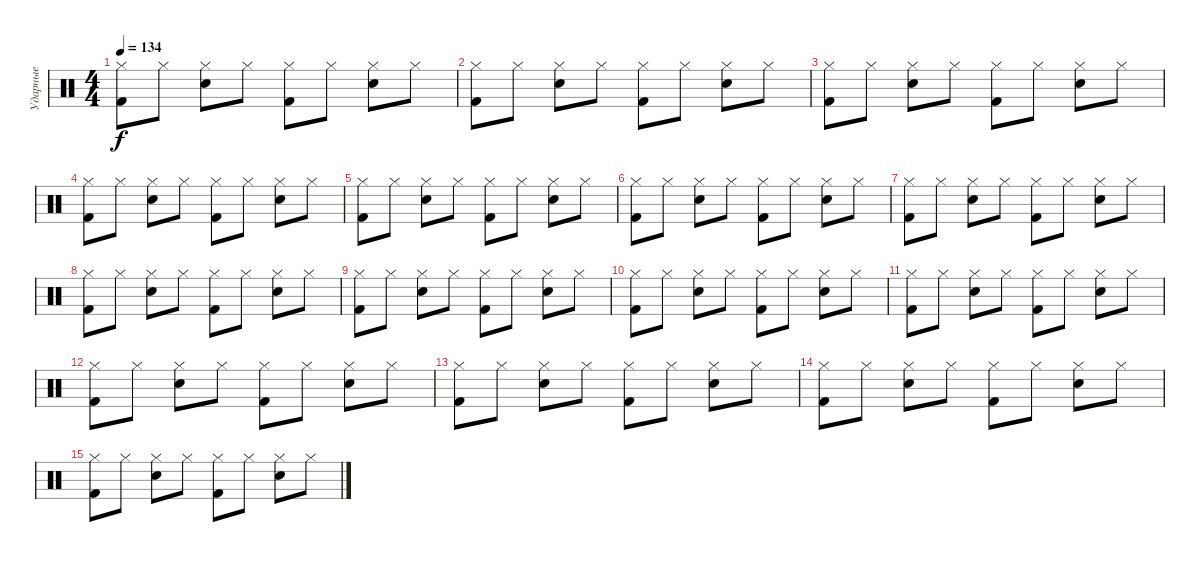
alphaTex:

\track ("Ударные" "Ударные") {instrument percussion}
\staff {score}
\articulation defaults
\ts (4 4)
\tempo 134
\clef neutral
\ks c
("Hi-Hat (closed)" "Kick (hit) 2").8{dy f} "Hi-Hat (closed)".8 ("Hi-Hat (closed)" "Snare (hit) 2").8 "Hi-Hat (closed)".8 ("Hi-Hat (closed)" "Kick (hit) 2").8 "Hi-Hat (closed)".8 ("Hi-Hat (closed)" "Snare (hit) 2").8 "Hi-Hat (closed)".8 |
("Hi-Hat (closed)" "Kick (hit) 2").8 "Hi-Hat (closed)".8 ("Hi-Hat (closed)" "Snare (hit) 2").8 "Hi-Hat (closed)".8 ("Hi-Hat (closed)" "Kick (hit) 2").8 "Hi-Hat (closed)".8 ("Hi-Hat (closed)" "Snare (hit) 2").8 "Hi-Hat (closed)".8 |
("Hi-Hat (closed)" "Kick (hit) 2").8 "Hi-Hat (closed)".8 ("Hi-Hat (closed)" "Snare (hit) 2").8 "Hi-Hat (closed)".8 ("Hi-Hat (closed)" "Kick (hit) 2").8 "Hi-Hat (closed)".8 ("Hi-Hat (closed)" "Snare (hit) 2").8 "Hi-Hat (closed)".8 |
("Hi-Hat (closed)" "Kick (hit) 2").8 "Hi-Hat (closed)".8 ("Hi-Hat (closed)" "Snare (hit) 2").8 "Hi-Hat (closed)".8 ("Hi-Hat (closed)" "Kick (hit) 2").8 "Hi-Hat (closed)".8 ("Hi-Hat (closed)" "Snare (hit) 2").8 "Hi-Hat (closed)".8 |
("Hi-Hat (closed)" "Kick (hit) 2").8 "Hi-Hat (closed)".8 ("Hi-Hat (closed)" "Snare (hit) 2").8 "Hi-Hat (closed)".8 ("Hi-Hat (closed)" "Kick (hit) 2").8 "Hi-Hat (closed)".8 ("Hi-Hat (closed)" "Snare (hit) 2").8 "Hi-Hat (closed)".8 |
("Hi-Hat (closed)" "Kick (hit) 2").8 "Hi-Hat (closed)".8 ("Hi-Hat (closed)" "Snare (hit) 2").8 "Hi-Hat (closed)".8 ("Hi-Hat (closed)" "Kick (hit) 2").8 "Hi-Hat (closed)".8 ("Hi-Hat (closed)" "Snare (hit) 2").8 "Hi-Hat (closed)".8 |
("Hi-Hat (closed)" "Kick (hit) 2").8 "Hi-Hat (closed)".8 ("Hi-Hat (closed)" "Snare (hit) 2").8 "Hi-Hat (closed)".8 ("Hi-Hat (closed)" "Kick (hit) 2").8 "Hi-Hat (closed)".8 ("Hi-Hat (closed)" "Snare (hit) 2").8 "Hi-Hat (closed)".8 |
("Hi-Hat (closed)" "Kick (hit) 2").8 "Hi-Hat (closed)".8 ("Hi-Hat (closed)" "Snare (hit) 2").8 "Hi-Hat (closed)".8 ("Hi-Hat (closed)" "Kick (hit) 2").8 "Hi-Hat (closed)".8 ("Hi-Hat (closed)" "Snare (hit) 2").8 "Hi-Hat (closed)".8 |
("Hi-Hat (closed)" "Kick (hit) 2").8 "Hi-Hat (closed)".8 ("Hi-Hat (closed)" "Snare (hit) 2").8 "Hi-Hat (closed)".8 ("Hi-Hat (closed)" "Kick (hit) 2").8 "Hi-Hat (closed)".8 ("Hi-Hat (closed)" "Snare (hit) 2").8 "Hi-Hat (closed)".8 |
("Hi-Hat (closed)" "Kick (hit) 2").8 "Hi-Hat (closed)".8 ("Hi-Hat (closed)" "Snare (hit) 2").8 "Hi-Hat (closed)".8 ("Hi-Hat (closed)" "Kick (hit) 2").8 "Hi-Hat (closed)".8 ("Hi-Hat (closed)" "Snare (hit) 2").8 "Hi-Hat (closed)".8 |
("Hi-Hat (closed)" "Kick (hit) 2").8 "Hi-Hat (closed)".8 ("Hi-Hat (closed)" "Snare (hit) 2").8 "Hi-Hat (closed)".8 ("Hi-Hat (closed)" "Kick (hit) 2").8 "Hi-Hat (closed)".8 ("Hi-Hat (closed)" "Snare (hit) 2").8 "Hi-Hat (closed)".8 |
("Hi-Hat (closed)" "Kick (hit) 2").8{volume 5} "Hi-Hat (closed)".8 ("Hi-Hat (closed)" "Snare (hit) 2").8 "Hi-Hat (closed)".8 ("Hi-Hat (closed)" "Kick (hit) 2").8 "Hi-Hat (closed)".8 ("Hi-Hat (closed)" "Snare (hit) 2").8 "Hi-Hat (closed)".8 |
("Hi-Hat (closed)" "Kick (hit) 2").8 "Hi-Hat (closed)".8 ("Hi-Hat (closed)" "Snare (hit) 2").8 "Hi-Hat (closed)".8 ("Hi-Hat (closed)" "Kick (hit) 2").8 "Hi-Hat (closed)".8 ("Hi-Hat (closed)" "Snare (hit) 2").8 "Hi-Hat (closed)".8 |
("Hi-Hat (closed)" "Kick (hit) 2").8{volume 3} "Hi-Hat (closed)".8 ("Hi-Hat (closed)" "Snare (hit) 2").8 "Hi-Hat (closed)".8 ("Hi-Hat (closed)" "Kick (hit) 2").8 "Hi-Hat (closed)".8 ("Hi-Hat (closed)" "Snare (hit) 2").8 "Hi-Hat (closed)".8 |
("Hi-Hat (closed)" "Kick (hit) 2").8 "Hi-Hat (closed)".8 ("Hi-Hat (closed)" "Snare (hit) 2").8 "Hi-Hat (closed)".8 ("Hi-Hat (closed)" "Kick (hit) 2").8 "Hi-Hat (closed)".8 ("Hi-Hat (closed)" "Snare (hit) 2").8 "Hi-Hat (closed)".8
